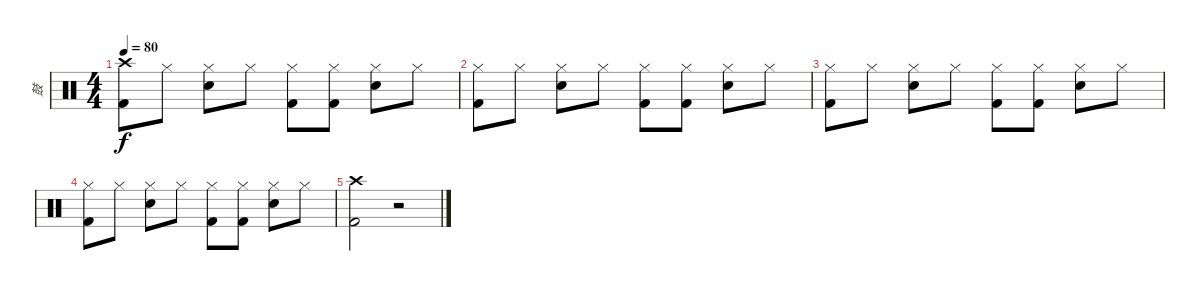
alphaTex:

\track ("鼓" "鼓") {instrument percussion}
\staff {score}
\articulation defaults
\ts (4 4)
\tempo 80
\clef neutral
\ks c
("Crash high (hit)" "Kick (hit) 2").8{dy f} "Hi-Hat (closed)".8 ("Hi-Hat (closed)" "Electric Snare (hit)").8 "Hi-Hat (closed)".8 ("Hi-Hat (closed)" "Kick (hit) 2").8 ("Hi-Hat (closed)" "Kick (hit) 2").8 ("Hi-Hat (closed)" "Electric Snare (hit)").8 "Hi-Hat (closed)".8 |
("Hi-Hat (closed)" "Kick (hit) 2").8 "Hi-Hat (closed)".8 ("Hi-Hat (closed)" "Electric Snare (hit)").8 "Hi-Hat (closed)".8 ("Hi-Hat (closed)" "Kick (hit) 2").8 ("Hi-Hat (closed)" "Kick (hit) 2").8 ("Hi-Hat (closed)" "Electric Snare (hit)").8 "Hi-Hat (closed)".8 |
("Hi-Hat (closed)" "Kick (hit) 2").8 "Hi-Hat (closed)".8 ("Hi-Hat (closed)" "Electric Snare (hit)").8 "Hi-Hat (closed)".8 ("Hi-Hat (closed)" "Kick (hit) 2").8 ("Hi-Hat (closed)" "Kick (hit) 2").8 ("Hi-Hat (closed)" "Electric Snare (hit)").8 "Hi-Hat (closed)".8 |
("Hi-Hat (closed)" "Kick (hit) 2").8 "Hi-Hat (closed)".8 ("Hi-Hat (closed)" "Electric Snare (hit)").8 "Hi-Hat (closed)".8 ("Hi-Hat (closed)" "Kick (hit) 2").8 ("Hi-Hat (closed)" "Kick (hit) 2").8 ("Hi-Hat (closed)" "Electric Snare (hit)").8 "Hi-Hat (closed)".8 |
("Crash high (hit)" "Kick (hit) 2").2 r.2
